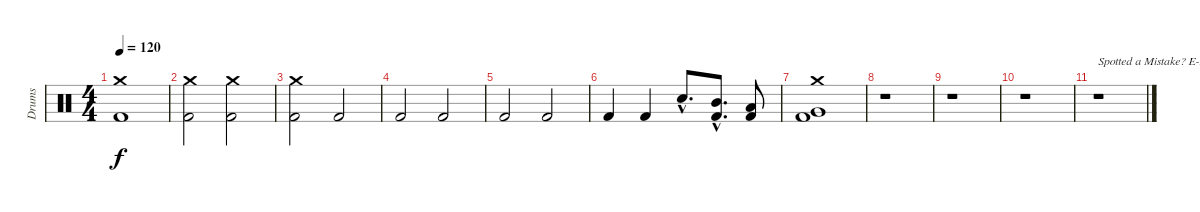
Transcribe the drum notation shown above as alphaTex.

\track ("Drums" "Drums") {instrument percussion}
\staff {score}
\articulation defaults
\ts (4 4)
\tempo 120
\clef neutral
\ks c
("Crash medium (hit)" "Kick (hit) 2").1{dy f} |
("Crash medium (hit)" "Kick (hit) 2").2 ("Crash medium (hit)" "Kick (hit) 2").2 |
("Crash medium (hit)" "Kick (hit) 2").2 "Kick (hit) 2".2 |
"Kick (hit) 2".2 "Kick (hit) 2".2 |
"Kick (hit) 2".2 "Kick (hit) 2".2 |
"Kick (hit) 2".4 "Kick (hit) 2".4 "Electric Snare (hit)"{hac}.8{d} ("Mid Tom (hit)"{hac} "Kick (hit) 2"{hac}).8{d} ("Low Tom (hit)" "Kick (hit) 2").8 |
("Crash medium (hit)" "Very Low Tom (hit)" "Kick (hit) 2").1 |
r.1 |
r.1 |
r.1 |
r.1{txt "Spotted a Mistake? E-Mail me!"}
